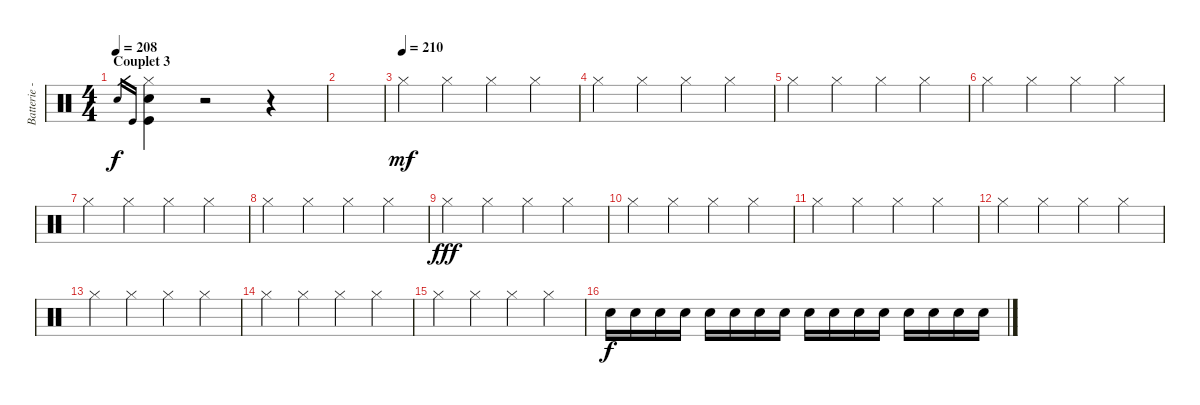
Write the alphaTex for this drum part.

\track ("Batterie - Guillaume" "Batterie -") {instrument percussion}
\staff {score}
\articulation defaults
\ts (4 4)
\section ("" "Couplet 3")
\tempo 208
\clef neutral
\ks c "Snare (hit) 2".16{gr dy f} "Kick (hit)".16{gr}
("Hi-Hat (closed)" "Snare (hit) 2" "Kick (hit)").4 r.2 r.4 |
|
\tempo (210)
"Hi-Hat (closed)".4{dy mf} "Hi-Hat (closed)".4 "Hi-Hat (closed)".4 "Hi-Hat (closed)".4 |
"Hi-Hat (closed)".4 "Hi-Hat (closed)".4 "Hi-Hat (closed)".4 "Hi-Hat (closed)".4 |
"Hi-Hat (closed)".4 "Hi-Hat (closed)".4 "Hi-Hat (closed)".4 "Hi-Hat (closed)".4 |
"Hi-Hat (closed)".4 "Hi-Hat (closed)".4 "Hi-Hat (closed)".4 "Hi-Hat (closed)".4 |
"Hi-Hat (closed)".4 "Hi-Hat (closed)".4 "Hi-Hat (closed)".4 "Hi-Hat (closed)".4 |
"Hi-Hat (closed)".4 "Hi-Hat (closed)".4 "Hi-Hat (closed)".4 "Hi-Hat (closed)".4 |
"Hi-Hat (closed)".4{dy fff} "Hi-Hat (closed)".4 "Hi-Hat (closed)".4 "Hi-Hat (closed)".4 |
"Hi-Hat (closed)".4 "Hi-Hat (closed)".4 "Hi-Hat (closed)".4 "Hi-Hat (closed)".4 |
"Hi-Hat (closed)".4 "Hi-Hat (closed)".4 "Hi-Hat (closed)".4 "Hi-Hat (closed)".4 |
"Hi-Hat (closed)".4 "Hi-Hat (closed)".4 "Hi-Hat (closed)".4 "Hi-Hat (closed)".4 |
"Hi-Hat (closed)".4 "Hi-Hat (closed)".4 "Hi-Hat (closed)".4 "Hi-Hat (closed)".4 |
"Hi-Hat (closed)".4 "Hi-Hat (closed)".4 "Hi-Hat (closed)".4 "Hi-Hat (closed)".4 |
"Hi-Hat (closed)".4 "Hi-Hat (closed)".4 "Hi-Hat (closed)".4 "Hi-Hat (closed)".4 |
"Snare (hit) 2".16{dy f} "Snare (hit) 2".16 "Snare (hit) 2".16 "Snare (hit) 2".16 "Snare (hit) 2".16 "Snare (hit) 2".16 "Snare (hit) 2".16 "Snare (hit) 2".16 "Snare (hit) 2".16 "Snare (hit) 2".16 "Snare (hit) 2".16 "Snare (hit) 2".16 "Snare (hit) 2".16 "Snare (hit) 2".16 "Snare (hit) 2".16 "Snare (hit) 2".16
